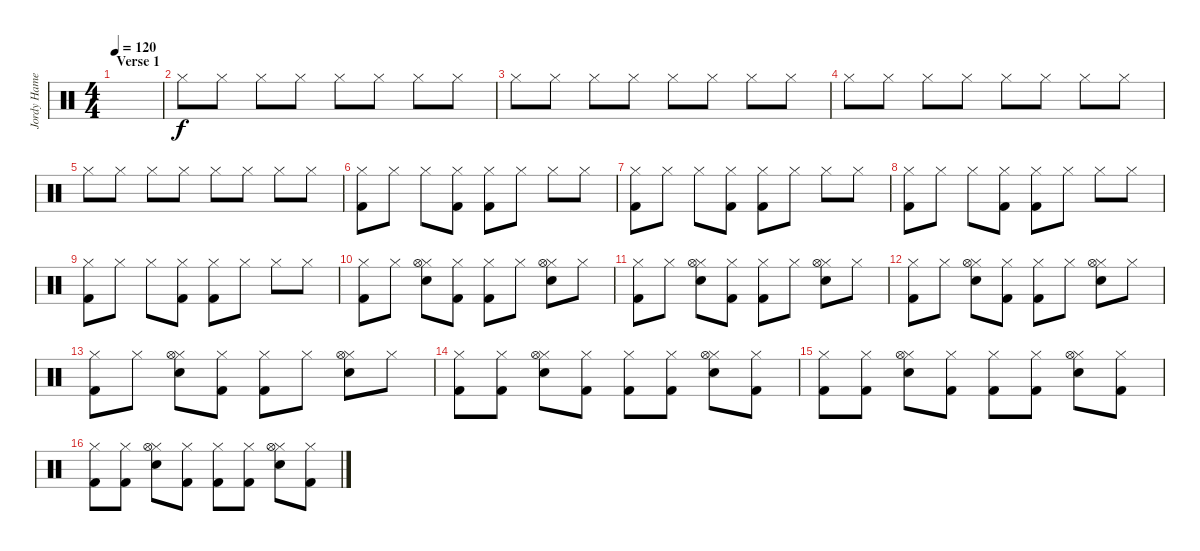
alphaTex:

\track ("Jordy Hamer" "Jordy Hame") {instrument percussion}
\staff {score}
\articulation defaults
\ts (4 4)
\section ("" "Verse 1")
\tempo 120
\clef neutral
\ks c
|
"Hi-Hat (closed)".8 "Hi-Hat (closed)".8 "Hi-Hat (closed)".8 "Hi-Hat (closed)".8 "Hi-Hat (closed)".8 "Hi-Hat (closed)".8 "Hi-Hat (closed)".8 "Hi-Hat (closed)".8 |
"Hi-Hat (closed)".8 "Hi-Hat (closed)".8 "Hi-Hat (closed)".8 "Hi-Hat (closed)".8 "Hi-Hat (closed)".8 "Hi-Hat (closed)".8 "Hi-Hat (closed)".8 "Hi-Hat (closed)".8 |
"Hi-Hat (closed)".8 "Hi-Hat (closed)".8 "Hi-Hat (closed)".8 "Hi-Hat (closed)".8 "Hi-Hat (closed)".8 "Hi-Hat (closed)".8 "Hi-Hat (closed)".8 "Hi-Hat (closed)".8 |
"Hi-Hat (closed)".8 "Hi-Hat (closed)".8 "Hi-Hat (closed)".8 "Hi-Hat (closed)".8 "Hi-Hat (closed)".8 "Hi-Hat (closed)".8 "Hi-Hat (closed)".8 "Hi-Hat (closed)".8 |
("Hi-Hat (closed)" "Kick (hit) 2").8 "Hi-Hat (closed)".8 "Hi-Hat (closed)".8 ("Hi-Hat (closed)" "Kick (hit) 2").8 ("Hi-Hat (closed)" "Kick (hit) 2").8 "Hi-Hat (closed)".8 "Hi-Hat (closed)".8 "Hi-Hat (closed)".8 |
("Hi-Hat (closed)" "Kick (hit) 2").8 "Hi-Hat (closed)".8 "Hi-Hat (closed)".8 ("Hi-Hat (closed)" "Kick (hit) 2").8 ("Hi-Hat (closed)" "Kick (hit) 2").8 "Hi-Hat (closed)".8 "Hi-Hat (closed)".8 "Hi-Hat (closed)".8 |
("Hi-Hat (closed)" "Kick (hit) 2").8 "Hi-Hat (closed)".8 "Hi-Hat (closed)".8 ("Hi-Hat (closed)" "Kick (hit) 2").8 ("Hi-Hat (closed)" "Kick (hit) 2").8 "Hi-Hat (closed)".8 "Hi-Hat (closed)".8 "Hi-Hat (closed)".8 |
("Hi-Hat (closed)" "Kick (hit) 2").8 "Hi-Hat (closed)".8 "Hi-Hat (closed)".8 ("Hi-Hat (closed)" "Kick (hit) 2").8 ("Hi-Hat (closed)" "Kick (hit) 2").8 "Hi-Hat (closed)".8 "Hi-Hat (closed)".8 "Hi-Hat (closed)".8 |
("Hi-Hat (closed)" "Kick (hit) 2").8 "Hi-Hat (closed)".8 ("Hi-Hat (closed)" "Electric Snare (hit)" "Hi-Hat (open)").8 ("Hi-Hat (closed)" "Kick (hit) 2").8 ("Hi-Hat (closed)" "Kick (hit) 2").8 "Hi-Hat (closed)".8 ("Hi-Hat (closed)" "Electric Snare (hit)" "Hi-Hat (open)").8 "Hi-Hat (closed)".8 |
("Hi-Hat (closed)" "Kick (hit) 2").8 "Hi-Hat (closed)".8 ("Hi-Hat (closed)" "Electric Snare (hit)" "Hi-Hat (open)").8 ("Hi-Hat (closed)" "Kick (hit) 2").8 ("Hi-Hat (closed)" "Kick (hit) 2").8 "Hi-Hat (closed)".8 ("Hi-Hat (closed)" "Electric Snare (hit)" "Hi-Hat (open)").8 "Hi-Hat (closed)".8 |
("Hi-Hat (closed)" "Kick (hit) 2").8 "Hi-Hat (closed)".8 ("Hi-Hat (closed)" "Electric Snare (hit)" "Hi-Hat (open)").8 ("Hi-Hat (closed)" "Kick (hit) 2").8 ("Hi-Hat (closed)" "Kick (hit) 2").8 "Hi-Hat (closed)".8 ("Hi-Hat (closed)" "Electric Snare (hit)" "Hi-Hat (open)").8 "Hi-Hat (closed)".8 |
("Hi-Hat (closed)" "Kick (hit) 2").8 "Hi-Hat (closed)".8 ("Hi-Hat (closed)" "Electric Snare (hit)" "Hi-Hat (open)").8 ("Hi-Hat (closed)" "Kick (hit) 2").8 ("Hi-Hat (closed)" "Kick (hit) 2").8 "Hi-Hat (closed)".8 ("Hi-Hat (closed)" "Electric Snare (hit)" "Hi-Hat (open)").8 "Hi-Hat (closed)".8 |
("Hi-Hat (closed)" "Kick (hit) 2").8 ("Hi-Hat (closed)" "Kick (hit) 2").8 ("Hi-Hat (closed)" "Electric Snare (hit)" "Hi-Hat (open)").8 ("Hi-Hat (closed)" "Kick (hit) 2").8 ("Hi-Hat (closed)" "Kick (hit) 2").8 ("Hi-Hat (closed)" "Kick (hit) 2").8 ("Hi-Hat (closed)" "Electric Snare (hit)" "Hi-Hat (open)").8 ("Hi-Hat (closed)" "Kick (hit) 2").8 |
("Hi-Hat (closed)" "Kick (hit) 2").8 ("Hi-Hat (closed)" "Kick (hit) 2").8 ("Hi-Hat (closed)" "Electric Snare (hit)" "Hi-Hat (open)").8 ("Hi-Hat (closed)" "Kick (hit) 2").8 ("Hi-Hat (closed)" "Kick (hit) 2").8 ("Hi-Hat (closed)" "Kick (hit) 2").8 ("Hi-Hat (closed)" "Electric Snare (hit)" "Hi-Hat (open)").8 ("Hi-Hat (closed)" "Kick (hit) 2").8 |
("Hi-Hat (closed)" "Kick (hit) 2").8 ("Hi-Hat (closed)" "Kick (hit) 2").8 ("Hi-Hat (closed)" "Electric Snare (hit)" "Hi-Hat (open)").8 ("Hi-Hat (closed)" "Kick (hit) 2").8 ("Hi-Hat (closed)" "Kick (hit) 2").8 ("Hi-Hat (closed)" "Kick (hit) 2").8 ("Hi-Hat (closed)" "Electric Snare (hit)" "Hi-Hat (open)").8 ("Hi-Hat (closed)" "Kick (hit) 2").8
